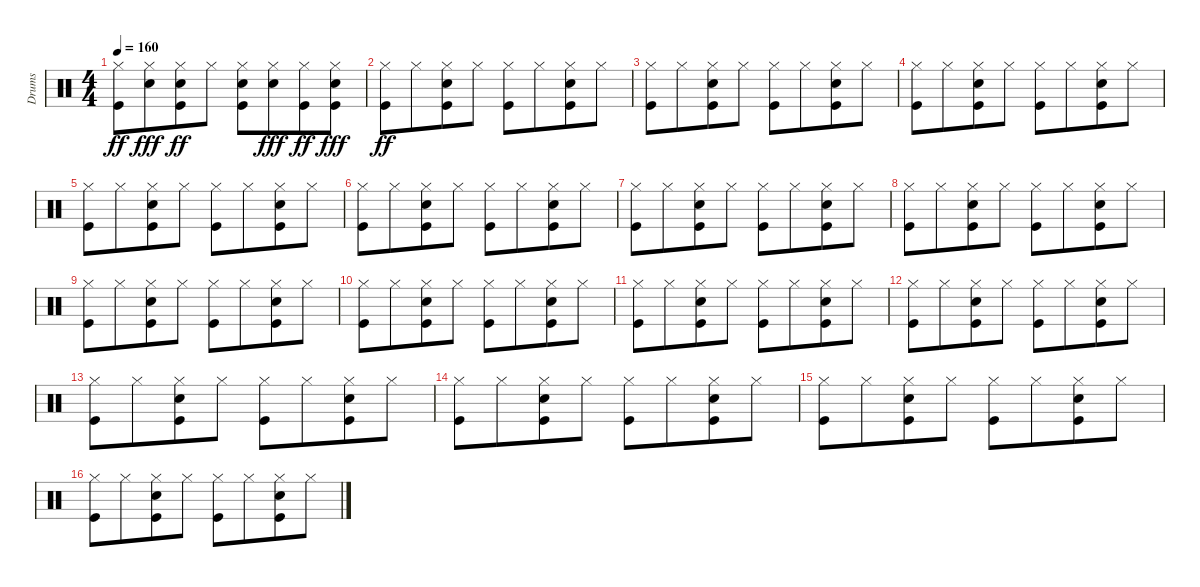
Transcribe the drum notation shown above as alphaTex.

\track ("Drums" "Drums") {instrument percussion}
\staff {score}
\articulation defaults
\ts (4 4)
\tempo 160
\clef neutral
\ks c
("Hi-Hat (closed)" "Kick (hit)").8{dy ff} ("Hi-Hat (closed)" "Snare (hit) 2").8{dy fff beam merge} ("Hi-Hat (closed)" "Snare (hit) 2" "Kick (hit)").8{dy ff} "Hi-Hat (closed)".8 ("Hi-Hat (closed)" "Snare (hit) 2" "Kick (hit)").8 ("Hi-Hat (closed)" "Snare (hit) 2").8{dy fff beam merge} ("Hi-Hat (closed)" "Kick (hit)").8{dy ff} ("Hi-Hat (closed)" "Snare (hit) 2" "Kick (hit)").8{dy fff} |
("Hi-Hat (closed)" "Kick (hit)").8{dy ff} "Hi-Hat (closed)".8{beam merge} ("Hi-Hat (closed)" "Snare (hit) 2" "Kick (hit)").8 "Hi-Hat (closed)".8 ("Hi-Hat (closed)" "Kick (hit)").8 "Hi-Hat (closed)".8{beam merge} ("Hi-Hat (closed)" "Snare (hit) 2" "Kick (hit)").8 "Hi-Hat (closed)".8 |
("Hi-Hat (closed)" "Kick (hit)").8 "Hi-Hat (closed)".8{beam merge} ("Hi-Hat (closed)" "Snare (hit) 2" "Kick (hit)").8 "Hi-Hat (closed)".8 ("Hi-Hat (closed)" "Kick (hit)").8 "Hi-Hat (closed)".8{beam merge} ("Hi-Hat (closed)" "Snare (hit) 2" "Kick (hit)").8 "Hi-Hat (closed)".8 |
("Hi-Hat (closed)" "Kick (hit)").8 "Hi-Hat (closed)".8{beam merge} ("Hi-Hat (closed)" "Snare (hit) 2" "Kick (hit)").8 "Hi-Hat (closed)".8 ("Hi-Hat (closed)" "Kick (hit)").8 "Hi-Hat (closed)".8{beam merge} ("Hi-Hat (closed)" "Snare (hit) 2" "Kick (hit)").8 "Hi-Hat (closed)".8 |
("Hi-Hat (closed)" "Kick (hit)").8 "Hi-Hat (closed)".8{beam merge} ("Hi-Hat (closed)" "Snare (hit) 2" "Kick (hit)").8 "Hi-Hat (closed)".8 ("Hi-Hat (closed)" "Kick (hit)").8 "Hi-Hat (closed)".8{beam merge} ("Hi-Hat (closed)" "Snare (hit) 2" "Kick (hit)").8 "Hi-Hat (closed)".8 |
("Hi-Hat (closed)" "Kick (hit)").8 "Hi-Hat (closed)".8{beam merge} ("Hi-Hat (closed)" "Snare (hit) 2" "Kick (hit)").8 "Hi-Hat (closed)".8 ("Hi-Hat (closed)" "Kick (hit)").8 "Hi-Hat (closed)".8{beam merge} ("Hi-Hat (closed)" "Snare (hit) 2" "Kick (hit)").8 "Hi-Hat (closed)".8 |
("Hi-Hat (closed)" "Kick (hit)").8 "Hi-Hat (closed)".8{beam merge} ("Hi-Hat (closed)" "Snare (hit) 2" "Kick (hit)").8 "Hi-Hat (closed)".8 ("Hi-Hat (closed)" "Kick (hit)").8 "Hi-Hat (closed)".8{beam merge} ("Hi-Hat (closed)" "Snare (hit) 2" "Kick (hit)").8 "Hi-Hat (closed)".8 |
("Hi-Hat (closed)" "Kick (hit)").8 "Hi-Hat (closed)".8{beam merge} ("Hi-Hat (closed)" "Snare (hit) 2" "Kick (hit)").8 "Hi-Hat (closed)".8 ("Hi-Hat (closed)" "Kick (hit)").8 "Hi-Hat (closed)".8{beam merge} ("Hi-Hat (closed)" "Snare (hit) 2" "Kick (hit)").8 "Hi-Hat (closed)".8 |
("Hi-Hat (closed)" "Kick (hit)").8 "Hi-Hat (closed)".8{beam merge} ("Hi-Hat (closed)" "Snare (hit) 2" "Kick (hit)").8 "Hi-Hat (closed)".8 ("Hi-Hat (closed)" "Kick (hit)").8 "Hi-Hat (closed)".8{beam merge} ("Hi-Hat (closed)" "Snare (hit) 2" "Kick (hit)").8 "Hi-Hat (closed)".8 |
("Hi-Hat (closed)" "Kick (hit)").8 "Hi-Hat (closed)".8{beam merge} ("Hi-Hat (closed)" "Snare (hit) 2" "Kick (hit)").8 "Hi-Hat (closed)".8 ("Hi-Hat (closed)" "Kick (hit)").8 "Hi-Hat (closed)".8{beam merge} ("Hi-Hat (closed)" "Snare (hit) 2" "Kick (hit)").8 "Hi-Hat (closed)".8 |
("Hi-Hat (closed)" "Kick (hit)").8 "Hi-Hat (closed)".8{beam merge} ("Hi-Hat (closed)" "Snare (hit) 2" "Kick (hit)").8 "Hi-Hat (closed)".8 ("Hi-Hat (closed)" "Kick (hit)").8 "Hi-Hat (closed)".8{beam merge} ("Hi-Hat (closed)" "Snare (hit) 2" "Kick (hit)").8 "Hi-Hat (closed)".8 |
("Hi-Hat (closed)" "Kick (hit)").8 "Hi-Hat (closed)".8{beam merge} ("Hi-Hat (closed)" "Snare (hit) 2" "Kick (hit)").8 "Hi-Hat (closed)".8 ("Hi-Hat (closed)" "Kick (hit)").8 "Hi-Hat (closed)".8{beam merge} ("Hi-Hat (closed)" "Snare (hit) 2" "Kick (hit)").8 "Hi-Hat (closed)".8 |
("Hi-Hat (closed)" "Kick (hit)").8 "Hi-Hat (closed)".8{beam merge} ("Hi-Hat (closed)" "Snare (hit) 2" "Kick (hit)").8 "Hi-Hat (closed)".8 ("Hi-Hat (closed)" "Kick (hit)").8 "Hi-Hat (closed)".8{beam merge} ("Hi-Hat (closed)" "Snare (hit) 2" "Kick (hit)").8 "Hi-Hat (closed)".8 |
("Hi-Hat (closed)" "Kick (hit)").8 "Hi-Hat (closed)".8{beam merge} ("Hi-Hat (closed)" "Snare (hit) 2" "Kick (hit)").8 "Hi-Hat (closed)".8 ("Hi-Hat (closed)" "Kick (hit)").8 "Hi-Hat (closed)".8{beam merge} ("Hi-Hat (closed)" "Snare (hit) 2" "Kick (hit)").8 "Hi-Hat (closed)".8 |
("Hi-Hat (closed)" "Kick (hit)").8 "Hi-Hat (closed)".8{beam merge} ("Hi-Hat (closed)" "Snare (hit) 2" "Kick (hit)").8 "Hi-Hat (closed)".8 ("Hi-Hat (closed)" "Kick (hit)").8 "Hi-Hat (closed)".8{beam merge} ("Hi-Hat (closed)" "Snare (hit) 2" "Kick (hit)").8 "Hi-Hat (closed)".8 |
("Hi-Hat (closed)" "Kick (hit)").8 "Hi-Hat (closed)".8{beam merge} ("Hi-Hat (closed)" "Snare (hit) 2" "Kick (hit)").8 "Hi-Hat (closed)".8 ("Hi-Hat (closed)" "Kick (hit)").8 "Hi-Hat (closed)".8{beam merge} ("Hi-Hat (closed)" "Snare (hit) 2" "Kick (hit)").8 "Hi-Hat (closed)".8
